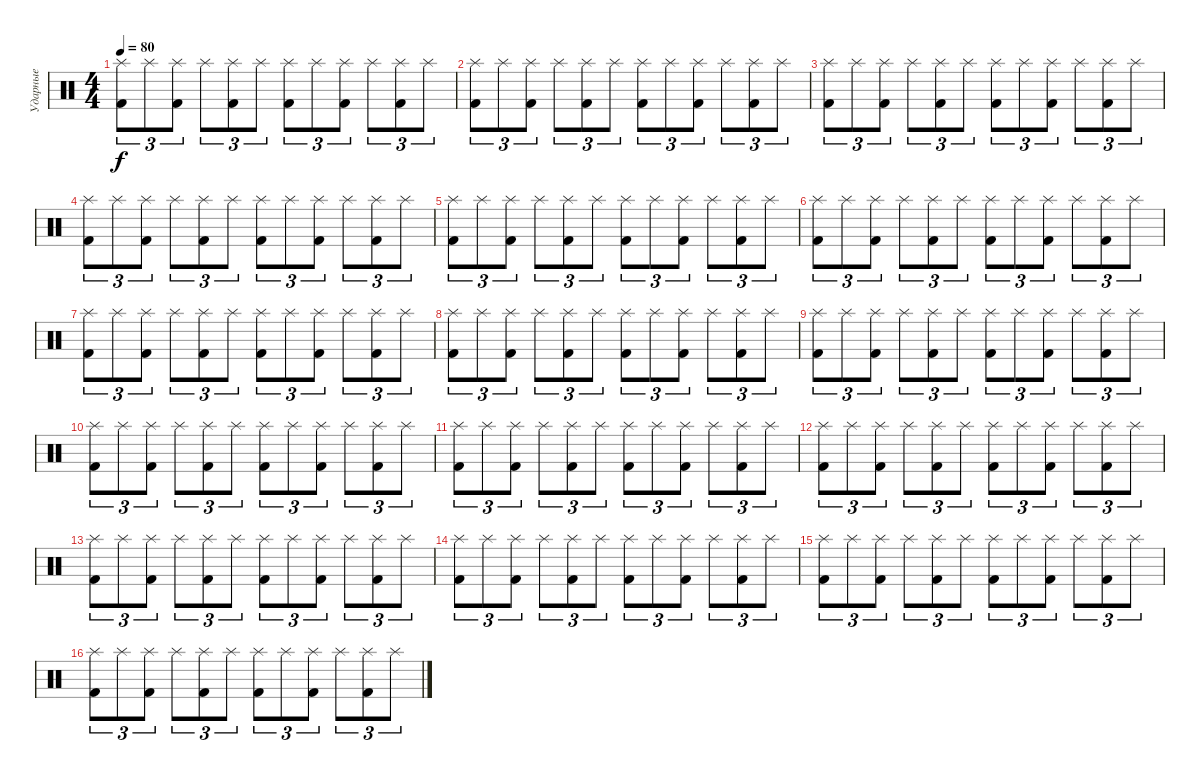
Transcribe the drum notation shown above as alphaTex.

\track ("Ударные" "Ударные") {instrument percussion}
\staff {score}
\articulation defaults
\ts (4 4)
\tempo 80
\clef neutral
\ks c
("Splash (hit)" "Kick (hit) 2").8{tu (3 2) dy f} "Splash (hit)".8{tu (3 2)} ("Splash (hit)" "Kick (hit) 2").8{tu (3 2)} "Splash (hit)".8{tu (3 2)} ("Splash (hit)" "Kick (hit) 2").8{tu (3 2)} "Splash (hit)".8{tu (3 2)} ("Splash (hit)" "Kick (hit) 2").8{tu (3 2)} "Splash (hit)".8{tu (3 2)} ("Splash (hit)" "Kick (hit) 2").8{tu (3 2)} "Splash (hit)".8{tu (3 2)} ("Splash (hit)" "Kick (hit) 2").8{tu (3 2)} "Splash (hit)".8{tu (3 2)} |
("Splash (hit)" "Kick (hit) 2").8{tu (3 2)} "Splash (hit)".8{tu (3 2)} ("Splash (hit)" "Kick (hit) 2").8{tu (3 2)} "Splash (hit)".8{tu (3 2)} ("Splash (hit)" "Kick (hit) 2").8{tu (3 2)} "Splash (hit)".8{tu (3 2)} ("Splash (hit)" "Kick (hit) 2").8{tu (3 2)} "Splash (hit)".8{tu (3 2)} ("Splash (hit)" "Kick (hit) 2").8{tu (3 2)} "Splash (hit)".8{tu (3 2)} ("Splash (hit)" "Kick (hit) 2").8{tu (3 2)} "Splash (hit)".8{tu (3 2)} |
("Splash (hit)" "Kick (hit) 2").8{tu (3 2)} "Splash (hit)".8{tu (3 2)} ("Splash (hit)" "Kick (hit) 2").8{tu (3 2)} "Splash (hit)".8{tu (3 2)} ("Splash (hit)" "Kick (hit) 2").8{tu (3 2)} "Splash (hit)".8{tu (3 2)} ("Splash (hit)" "Kick (hit) 2").8{tu (3 2)} "Splash (hit)".8{tu (3 2)} ("Splash (hit)" "Kick (hit) 2").8{tu (3 2)} "Splash (hit)".8{tu (3 2)} ("Splash (hit)" "Kick (hit) 2").8{tu (3 2)} "Splash (hit)".8{tu (3 2)} |
("Splash (hit)" "Kick (hit) 2").8{tu (3 2)} "Splash (hit)".8{tu (3 2)} ("Splash (hit)" "Kick (hit) 2").8{tu (3 2)} "Splash (hit)".8{tu (3 2)} ("Splash (hit)" "Kick (hit) 2").8{tu (3 2)} "Splash (hit)".8{tu (3 2)} ("Splash (hit)" "Kick (hit) 2").8{tu (3 2)} "Splash (hit)".8{tu (3 2)} ("Splash (hit)" "Kick (hit) 2").8{tu (3 2)} "Splash (hit)".8{tu (3 2)} ("Splash (hit)" "Kick (hit) 2").8{tu (3 2)} "Splash (hit)".8{tu (3 2)} |
("Splash (hit)" "Kick (hit) 2").8{tu (3 2)} "Splash (hit)".8{tu (3 2)} ("Splash (hit)" "Kick (hit) 2").8{tu (3 2)} "Splash (hit)".8{tu (3 2)} ("Splash (hit)" "Kick (hit) 2").8{tu (3 2)} "Splash (hit)".8{tu (3 2)} ("Splash (hit)" "Kick (hit) 2").8{tu (3 2)} "Splash (hit)".8{tu (3 2)} ("Splash (hit)" "Kick (hit) 2").8{tu (3 2)} "Splash (hit)".8{tu (3 2)} ("Splash (hit)" "Kick (hit) 2").8{tu (3 2)} "Splash (hit)".8{tu (3 2)} |
("Splash (hit)" "Kick (hit) 2").8{tu (3 2)} "Splash (hit)".8{tu (3 2)} ("Splash (hit)" "Kick (hit) 2").8{tu (3 2)} "Splash (hit)".8{tu (3 2)} ("Splash (hit)" "Kick (hit) 2").8{tu (3 2)} "Splash (hit)".8{tu (3 2)} ("Splash (hit)" "Kick (hit) 2").8{tu (3 2)} "Splash (hit)".8{tu (3 2)} ("Splash (hit)" "Kick (hit) 2").8{tu (3 2)} "Splash (hit)".8{tu (3 2)} ("Splash (hit)" "Kick (hit) 2").8{tu (3 2)} "Splash (hit)".8{tu (3 2)} |
("Splash (hit)" "Kick (hit) 2").8{tu (3 2)} "Splash (hit)".8{tu (3 2)} ("Splash (hit)" "Kick (hit) 2").8{tu (3 2)} "Splash (hit)".8{tu (3 2)} ("Splash (hit)" "Kick (hit) 2").8{tu (3 2)} "Splash (hit)".8{tu (3 2)} ("Splash (hit)" "Kick (hit) 2").8{tu (3 2)} "Splash (hit)".8{tu (3 2)} ("Splash (hit)" "Kick (hit) 2").8{tu (3 2)} "Splash (hit)".8{tu (3 2)} ("Splash (hit)" "Kick (hit) 2").8{tu (3 2)} "Splash (hit)".8{tu (3 2)} |
("Splash (hit)" "Kick (hit) 2").8{tu (3 2)} "Splash (hit)".8{tu (3 2)} ("Splash (hit)" "Kick (hit) 2").8{tu (3 2)} "Splash (hit)".8{tu (3 2)} ("Splash (hit)" "Kick (hit) 2").8{tu (3 2)} "Splash (hit)".8{tu (3 2)} ("Splash (hit)" "Kick (hit) 2").8{tu (3 2)} "Splash (hit)".8{tu (3 2)} ("Splash (hit)" "Kick (hit) 2").8{tu (3 2)} "Splash (hit)".8{tu (3 2)} ("Splash (hit)" "Kick (hit) 2").8{tu (3 2)} "Splash (hit)".8{tu (3 2)} |
("Splash (hit)" "Kick (hit) 2").8{tu (3 2)} "Splash (hit)".8{tu (3 2)} ("Splash (hit)" "Kick (hit) 2").8{tu (3 2)} "Splash (hit)".8{tu (3 2)} ("Splash (hit)" "Kick (hit) 2").8{tu (3 2)} "Splash (hit)".8{tu (3 2)} ("Splash (hit)" "Kick (hit) 2").8{tu (3 2)} "Splash (hit)".8{tu (3 2)} ("Splash (hit)" "Kick (hit) 2").8{tu (3 2)} "Splash (hit)".8{tu (3 2)} ("Splash (hit)" "Kick (hit) 2").8{tu (3 2)} "Splash (hit)".8{tu (3 2)} |
("Splash (hit)" "Kick (hit) 2").8{tu (3 2)} "Splash (hit)".8{tu (3 2)} ("Splash (hit)" "Kick (hit) 2").8{tu (3 2)} "Splash (hit)".8{tu (3 2)} ("Splash (hit)" "Kick (hit) 2").8{tu (3 2)} "Splash (hit)".8{tu (3 2)} ("Splash (hit)" "Kick (hit) 2").8{tu (3 2)} "Splash (hit)".8{tu (3 2)} ("Splash (hit)" "Kick (hit) 2").8{tu (3 2)} "Splash (hit)".8{tu (3 2)} ("Splash (hit)" "Kick (hit) 2").8{tu (3 2)} "Splash (hit)".8{tu (3 2)} |
("Splash (hit)" "Kick (hit) 2").8{tu (3 2)} "Splash (hit)".8{tu (3 2)} ("Splash (hit)" "Kick (hit) 2").8{tu (3 2)} "Splash (hit)".8{tu (3 2)} ("Splash (hit)" "Kick (hit) 2").8{tu (3 2)} "Splash (hit)".8{tu (3 2)} ("Splash (hit)" "Kick (hit) 2").8{tu (3 2)} "Splash (hit)".8{tu (3 2)} ("Splash (hit)" "Kick (hit) 2").8{tu (3 2)} "Splash (hit)".8{tu (3 2)} ("Splash (hit)" "Kick (hit) 2").8{tu (3 2)} "Splash (hit)".8{tu (3 2)} |
("Splash (hit)" "Kick (hit) 2").8{tu (3 2)} "Splash (hit)".8{tu (3 2)} ("Splash (hit)" "Kick (hit) 2").8{tu (3 2)} "Splash (hit)".8{tu (3 2)} ("Splash (hit)" "Kick (hit) 2").8{tu (3 2)} "Splash (hit)".8{tu (3 2)} ("Splash (hit)" "Kick (hit) 2").8{tu (3 2)} "Splash (hit)".8{tu (3 2)} ("Splash (hit)" "Kick (hit) 2").8{tu (3 2)} "Splash (hit)".8{tu (3 2)} ("Splash (hit)" "Kick (hit) 2").8{tu (3 2)} "Splash (hit)".8{tu (3 2)} |
("Splash (hit)" "Kick (hit) 2").8{tu (3 2)} "Splash (hit)".8{tu (3 2)} ("Splash (hit)" "Kick (hit) 2").8{tu (3 2)} "Splash (hit)".8{tu (3 2)} ("Splash (hit)" "Kick (hit) 2").8{tu (3 2)} "Splash (hit)".8{tu (3 2)} ("Splash (hit)" "Kick (hit) 2").8{tu (3 2)} "Splash (hit)".8{tu (3 2)} ("Splash (hit)" "Kick (hit) 2").8{tu (3 2)} "Splash (hit)".8{tu (3 2)} ("Splash (hit)" "Kick (hit) 2").8{tu (3 2)} "Splash (hit)".8{tu (3 2)} |
("Splash (hit)" "Kick (hit) 2").8{tu (3 2)} "Splash (hit)".8{tu (3 2)} ("Splash (hit)" "Kick (hit) 2").8{tu (3 2)} "Splash (hit)".8{tu (3 2)} ("Splash (hit)" "Kick (hit) 2").8{tu (3 2)} "Splash (hit)".8{tu (3 2)} ("Splash (hit)" "Kick (hit) 2").8{tu (3 2)} "Splash (hit)".8{tu (3 2)} ("Splash (hit)" "Kick (hit) 2").8{tu (3 2)} "Splash (hit)".8{tu (3 2)} ("Splash (hit)" "Kick (hit) 2").8{tu (3 2)} "Splash (hit)".8{tu (3 2)} |
("Splash (hit)" "Kick (hit) 2").8{tu (3 2)} "Splash (hit)".8{tu (3 2)} ("Splash (hit)" "Kick (hit) 2").8{tu (3 2)} "Splash (hit)".8{tu (3 2)} ("Splash (hit)" "Kick (hit) 2").8{tu (3 2)} "Splash (hit)".8{tu (3 2)} ("Splash (hit)" "Kick (hit) 2").8{tu (3 2)} "Splash (hit)".8{tu (3 2)} ("Splash (hit)" "Kick (hit) 2").8{tu (3 2)} "Splash (hit)".8{tu (3 2)} ("Splash (hit)" "Kick (hit) 2").8{tu (3 2)} "Splash (hit)".8{tu (3 2)} |
("Splash (hit)" "Kick (hit) 2").8{tu (3 2)} "Splash (hit)".8{tu (3 2)} ("Splash (hit)" "Kick (hit) 2").8{tu (3 2)} "Splash (hit)".8{tu (3 2)} ("Splash (hit)" "Kick (hit) 2").8{tu (3 2)} "Splash (hit)".8{tu (3 2)} ("Splash (hit)" "Kick (hit) 2").8{tu (3 2)} "Splash (hit)".8{tu (3 2)} ("Splash (hit)" "Kick (hit) 2").8{tu (3 2)} "Splash (hit)".8{tu (3 2)} ("Splash (hit)" "Kick (hit) 2").8{tu (3 2)} "Splash (hit)".8{tu (3 2)}
